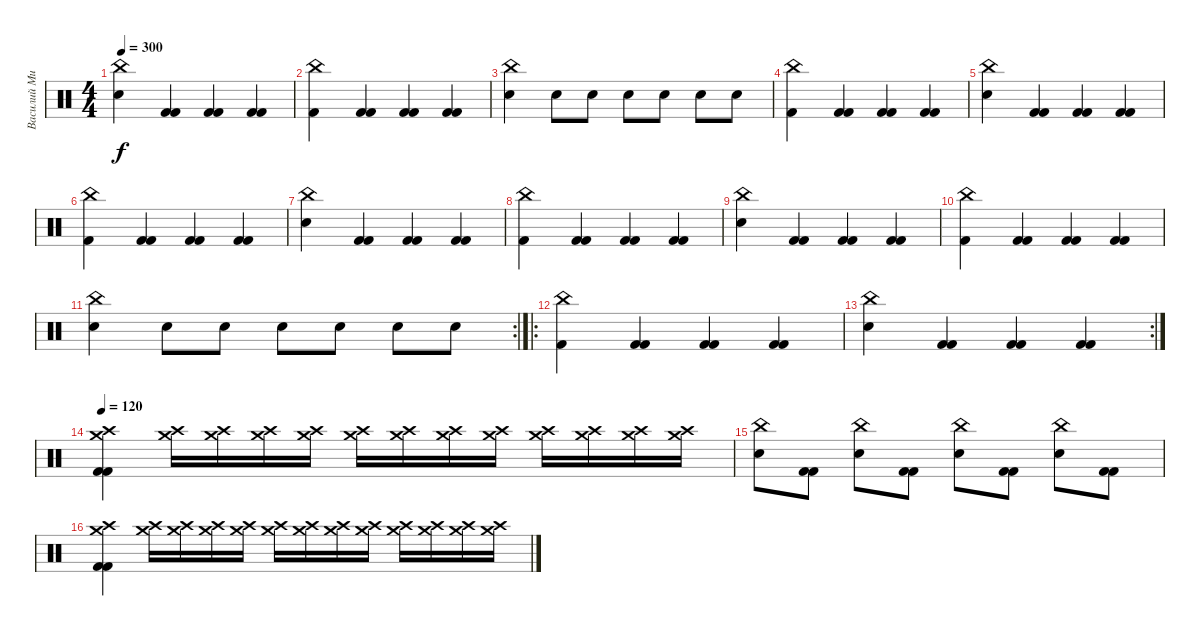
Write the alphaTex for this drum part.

\track ("Василий Михалыч-ударные" "Василий Ми") {instrument percussion}
\staff {score}
\articulation defaults
\ts (4 4)
\tempo 300
\clef neutral
\ks c
("Electric Snare (hit)" "China (hit)").4{dy f} ("Kick (hit) 2" "Kick (hit) 2").4 ("Kick (hit) 2" "Kick (hit) 2").4 ("Kick (hit) 2" "Kick (hit) 2").4 |
("Kick (hit) 2" "China (hit)").4 ("Kick (hit) 2" "Kick (hit) 2").4 ("Kick (hit) 2" "Kick (hit) 2").4 ("Kick (hit) 2" "Kick (hit) 2").4 |
("Electric Snare (hit)" "China (hit)").4 "Electric Snare (hit)".8 "Electric Snare (hit)".8 "Electric Snare (hit)".8 "Electric Snare (hit)".8 "Electric Snare (hit)".8 "Electric Snare (hit)".8 |
("Kick (hit) 2" "China (hit)").4 ("Kick (hit) 2" "Kick (hit) 2").4 ("Kick (hit) 2" "Kick (hit) 2").4 ("Kick (hit) 2" "Kick (hit) 2").4 |
("Electric Snare (hit)" "China (hit)").4 ("Kick (hit) 2" "Kick (hit) 2").4 ("Kick (hit) 2" "Kick (hit) 2").4 ("Kick (hit) 2" "Kick (hit) 2").4 |
("Kick (hit) 2" "China (hit)").4 ("Kick (hit) 2" "Kick (hit) 2").4 ("Kick (hit) 2" "Kick (hit) 2").4 ("Kick (hit) 2" "Kick (hit) 2").4 |
("Electric Snare (hit)" "China (hit)").4 ("Kick (hit) 2" "Kick (hit) 2").4 ("Kick (hit) 2" "Kick (hit) 2").4 ("Kick (hit) 2" "Kick (hit) 2").4 |
("Kick (hit) 2" "China (hit)").4 ("Kick (hit) 2" "Kick (hit) 2").4 ("Kick (hit) 2" "Kick (hit) 2").4 ("Kick (hit) 2" "Kick (hit) 2").4 |
("Electric Snare (hit)" "China (hit)").4 ("Kick (hit) 2" "Kick (hit) 2").4 ("Kick (hit) 2" "Kick (hit) 2").4 ("Kick (hit) 2" "Kick (hit) 2").4 |
("Kick (hit) 2" "China (hit)").4 ("Kick (hit) 2" "Kick (hit) 2").4 ("Kick (hit) 2" "Kick (hit) 2").4 ("Kick (hit) 2" "Kick (hit) 2").4 |
\rc 2
("Electric Snare (hit)" "China (hit)").4 "Electric Snare (hit)".8 "Electric Snare (hit)".8 "Electric Snare (hit)".8 "Electric Snare (hit)".8 "Electric Snare (hit)".8 "Electric Snare (hit)".8 |
\ro
("Kick (hit) 2" "China (hit)").4 ("Kick (hit) 2" "Kick (hit) 2").4 ("Kick (hit) 2" "Kick (hit) 2").4 ("Kick (hit) 2" "Kick (hit) 2").4 |
\rc 2
("Electric Snare (hit)" "China (hit)").4 ("Kick (hit) 2" "Kick (hit) 2").4 ("Kick (hit) 2" "Kick (hit) 2").4 ("Kick (hit) 2" "Kick (hit) 2").4 |
\tempo 120
("Kick (hit) 2" "Kick (hit) 2" "Crash high (hit)" "Crash medium (hit)").4 ("Crash high (hit)" "Crash medium (hit)").16 ("Crash high (hit)" "Crash medium (hit)").16 ("Crash high (hit)" "Crash medium (hit)").16 ("Crash high (hit)" "Crash medium (hit)").16 ("Crash high (hit)" "Crash medium (hit)").16 ("Crash high (hit)" "Crash medium (hit)").16 ("Crash high (hit)" "Crash medium (hit)").16 ("Crash high (hit)" "Crash medium (hit)").16 ("Crash high (hit)" "Crash medium (hit)").16 ("Crash high (hit)" "Crash medium (hit)").16 ("Crash high (hit)" "Crash medium (hit)").16 ("Crash high (hit)" "Crash medium (hit)").16 |
("Electric Snare (hit)" "China (hit)").8 ("Kick (hit) 2" "Kick (hit) 2").8 ("Electric Snare (hit)" "China (hit)").8 ("Kick (hit) 2" "Kick (hit) 2").8 ("Electric Snare (hit)" "China (hit)").8 ("Kick (hit) 2" "Kick (hit) 2").8 ("Electric Snare (hit)" "China (hit)").8 ("Kick (hit) 2" "Kick (hit) 2").8 |
("Kick (hit) 2" "Kick (hit) 2" "Crash high (hit)" "Crash medium (hit)").4 ("Crash high (hit)" "Crash medium (hit)").16 ("Crash high (hit)" "Crash medium (hit)").16 ("Crash high (hit)" "Crash medium (hit)").16 ("Crash high (hit)" "Crash medium (hit)").16 ("Crash high (hit)" "Crash medium (hit)").16 ("Crash high (hit)" "Crash medium (hit)").16 ("Crash high (hit)" "Crash medium (hit)").16 ("Crash high (hit)" "Crash medium (hit)").16 ("Crash high (hit)" "Crash medium (hit)").16 ("Crash high (hit)" "Crash medium (hit)").16 ("Crash high (hit)" "Crash medium (hit)").16 ("Crash high (hit)" "Crash medium (hit)").16
